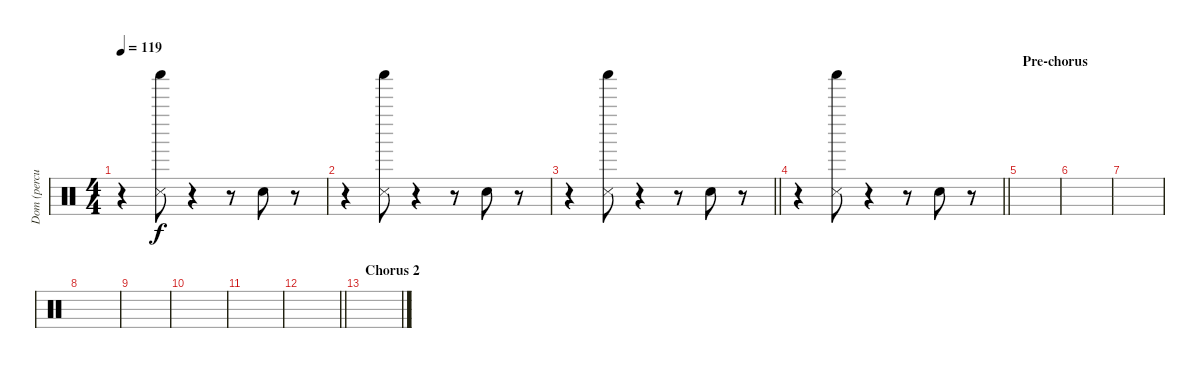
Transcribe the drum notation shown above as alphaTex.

\track ("Dom (percussions)" "Dom (percu") {instrument percussion}
\staff {score}
\articulation defaults
\ts (4 4)
\tempo 119
\clef neutral
\ks c
r.4{dy f} ("Shaker (hit)" "Metronome (hit)").8 r.4 r.8 "Hand Clap (hit)".8 r.8 |
r.4 ("Shaker (hit)" "Metronome (hit)").8 r.4 r.8 "Hand Clap (hit)".8 r.8 |
\barLineRight lightlight
r.4 ("Shaker (hit)" "Metronome (hit)").8 r.4 r.8 "Hand Clap (hit)".8 r.8 |
\barLineRight lightlight
r.4 ("Shaker (hit)" "Metronome (hit)").8 r.4 r.8 "Hand Clap (hit)".8 r.8 |
\section ("" "Pre-chorus")
|
|
|
|
|
|
|
\barLineRight lightlight
|
\section ("" "Chorus 2")
